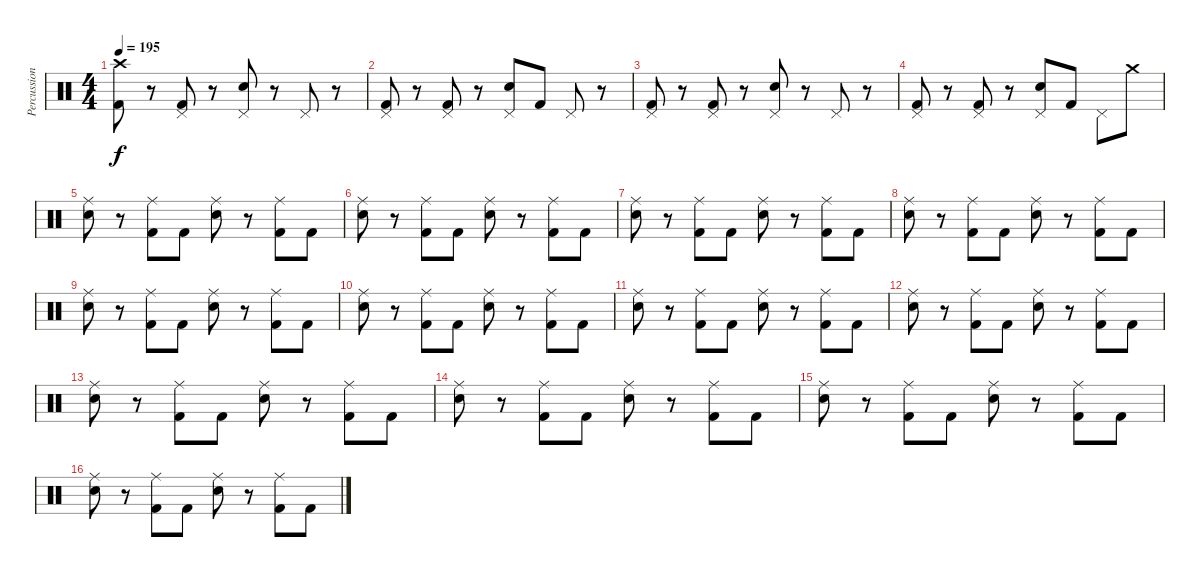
\track ("Percussion" "Percussion") {instrument percussion}
\staff {score}
\articulation defaults
\ts (4 4)
\tempo 195
\clef neutral
\ks c
("Crash high (hit)" "Kick (hit) 2").8{dy f} r.8 ("Pedal Hi-Hat (hit)" "Kick (hit) 2").8 r.8 ("Pedal Hi-Hat (hit)" "Electric Snare (hit)").8 r.8 "Pedal Hi-Hat (hit)".8 r.8 |
("Pedal Hi-Hat (hit)" "Kick (hit) 2").8 r.8 ("Pedal Hi-Hat (hit)" "Kick (hit) 2").8 r.8 ("Pedal Hi-Hat (hit)" "Electric Snare (hit)").8 "Kick (hit) 2".8 "Pedal Hi-Hat (hit)".8 r.8 |
("Pedal Hi-Hat (hit)" "Kick (hit) 2").8 r.8 ("Pedal Hi-Hat (hit)" "Kick (hit) 2").8 r.8 ("Pedal Hi-Hat (hit)" "Electric Snare (hit)").8 r.8 "Pedal Hi-Hat (hit)".8 r.8 |
("Pedal Hi-Hat (hit)" "Kick (hit) 2").8 r.8 ("Pedal Hi-Hat (hit)" "Kick (hit) 2").8 r.8 ("Pedal Hi-Hat (hit)" "Electric Snare (hit)").8 "Kick (hit) 2".8 "Pedal Hi-Hat (hit)".8 "Crash medium (hit)".8 |
("Ride (middle)" "Electric Snare (hit)").8 r.8 ("Ride (middle)" "Kick (hit) 2").8 "Kick (hit) 2".8 ("Ride (middle)" "Electric Snare (hit)").8 r.8 ("Ride (middle)" "Kick (hit) 2").8 "Kick (hit) 2".8 |
("Ride (middle)" "Electric Snare (hit)").8 r.8 ("Ride (middle)" "Kick (hit) 2").8 "Kick (hit) 2".8 ("Ride (middle)" "Electric Snare (hit)").8 r.8 ("Ride (middle)" "Kick (hit) 2").8 "Kick (hit) 2".8 |
("Ride (middle)" "Electric Snare (hit)").8 r.8 ("Ride (middle)" "Kick (hit) 2").8 "Kick (hit) 2".8 ("Ride (middle)" "Electric Snare (hit)").8 r.8 ("Ride (middle)" "Kick (hit) 2").8 "Kick (hit) 2".8 |
("Ride (middle)" "Electric Snare (hit)").8 r.8 ("Ride (middle)" "Kick (hit) 2").8 "Kick (hit) 2".8 ("Ride (middle)" "Electric Snare (hit)").8 r.8 ("Ride (middle)" "Kick (hit) 2").8 "Kick (hit) 2".8 |
("Ride (middle)" "Electric Snare (hit)").8 r.8 ("Ride (middle)" "Kick (hit) 2").8 "Kick (hit) 2".8 ("Ride (middle)" "Electric Snare (hit)").8 r.8 ("Ride (middle)" "Kick (hit) 2").8 "Kick (hit) 2".8 |
("Ride (middle)" "Electric Snare (hit)").8 r.8 ("Ride (middle)" "Kick (hit) 2").8 "Kick (hit) 2".8 ("Ride (middle)" "Electric Snare (hit)").8 r.8 ("Ride (middle)" "Kick (hit) 2").8 "Kick (hit) 2".8 |
("Ride (middle)" "Electric Snare (hit)").8 r.8 ("Ride (middle)" "Kick (hit) 2").8 "Kick (hit) 2".8 ("Ride (middle)" "Electric Snare (hit)").8 r.8 ("Ride (middle)" "Kick (hit) 2").8 "Kick (hit) 2".8 |
("Ride (middle)" "Electric Snare (hit)").8 r.8 ("Ride (middle)" "Kick (hit) 2").8 "Kick (hit) 2".8 ("Ride (middle)" "Electric Snare (hit)").8 r.8 ("Ride (middle)" "Kick (hit) 2").8 "Kick (hit) 2".8 |
("Ride (middle)" "Electric Snare (hit)").8 r.8 ("Ride (middle)" "Kick (hit) 2").8 "Kick (hit) 2".8 ("Ride (middle)" "Electric Snare (hit)").8 r.8 ("Ride (middle)" "Kick (hit) 2").8 "Kick (hit) 2".8 |
("Ride (middle)" "Electric Snare (hit)").8 r.8 ("Ride (middle)" "Kick (hit) 2").8 "Kick (hit) 2".8 ("Ride (middle)" "Electric Snare (hit)").8 r.8 ("Ride (middle)" "Kick (hit) 2").8 "Kick (hit) 2".8 |
("Ride (middle)" "Electric Snare (hit)").8 r.8 ("Ride (middle)" "Kick (hit) 2").8 "Kick (hit) 2".8 ("Ride (middle)" "Electric Snare (hit)").8 r.8 ("Ride (middle)" "Kick (hit) 2").8 "Kick (hit) 2".8 |
("Ride (middle)" "Electric Snare (hit)").8 r.8 ("Ride (middle)" "Kick (hit) 2").8 "Kick (hit) 2".8 ("Ride (middle)" "Electric Snare (hit)").8 r.8 ("Ride (middle)" "Kick (hit) 2").8 "Kick (hit) 2".8
